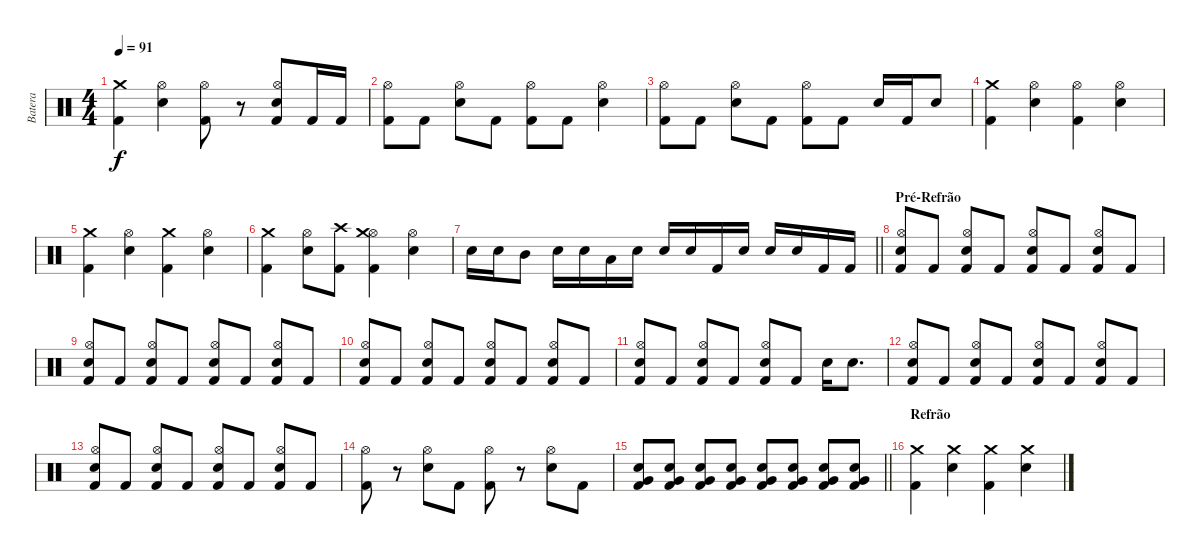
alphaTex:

\track ("Batera" "Batera") {instrument percussion}
\staff {score}
\articulation defaults
\ts (4 4)
\tempo 91
\clef neutral
\ks c
("Crash medium (hit)" "Kick (hit) 2").4{dy f} ("Hi-Hat (open)" "Electric Snare (hit)").4 ("Hi-Hat (open)" "Kick (hit) 2").8 r.8 ("Hi-Hat (open)" "Electric Snare (hit)" "Kick (hit) 2").8 "Kick (hit) 2".16 "Kick (hit) 2".16 |
("Hi-Hat (open)" "Kick (hit) 2").8 "Kick (hit) 2".8 ("Hi-Hat (open)" "Electric Snare (hit)").8 "Kick (hit) 2".8 ("Hi-Hat (open)" "Kick (hit) 2").8 "Kick (hit) 2".8 ("Hi-Hat (open)" "Electric Snare (hit)").4 |
("Hi-Hat (open)" "Kick (hit) 2").8 "Kick (hit) 2".8 ("Hi-Hat (open)" "Electric Snare (hit)").8 "Kick (hit) 2".8 ("Hi-Hat (open)" "Kick (hit) 2").8 "Kick (hit) 2".8 "Electric Snare (hit)".16 "Kick (hit) 2".16 "Electric Snare (hit)".8 |
("Crash medium (hit)" "Kick (hit) 2").4 ("Hi-Hat (open)" "Electric Snare (hit)").4 ("Hi-Hat (open)" "Kick (hit) 2").4 ("Hi-Hat (open)" "Electric Snare (hit)").4 |
("Crash medium (hit)" "Kick (hit) 2").4 ("Hi-Hat (open)" "Electric Snare (hit)").4 ("Crash medium (hit)" "Kick (hit) 2").4 ("Hi-Hat (open)" "Electric Snare (hit)").4 |
("Crash medium (hit)" "Kick (hit) 2").4 ("Hi-Hat (open)" "Electric Snare (hit)").8 ("Crash high (hit)" "Kick (hit) 2").8 ("Hi-Hat (open)" "Crash medium (hit)" "Kick (hit) 2").4 ("Hi-Hat (open)" "Electric Snare (hit)").4 |
\barLineRight lightlight "Electric Snare (hit)".16 "Electric Snare (hit)".16 "Mid Tom (hit)".8 "Electric Snare (hit)".16 "Electric Snare (hit)".16 "Low Tom (hit)".16 "Electric Snare (hit)".16 "Electric Snare (hit)".16 "Electric Snare (hit)".16 "Kick (hit) 2".16 "Electric Snare (hit)".16 "Electric Snare (hit)".16 "Electric Snare (hit)".16 "Kick (hit) 2".16 "Kick (hit) 2".16
|
\section ("" "Pré-Refrão")
("Hi-Hat (open)" "Electric Snare (hit)" "Kick (hit) 2").8 "Kick (hit) 2".8 ("Hi-Hat (open)" "Electric Snare (hit)" "Kick (hit) 2").8 "Kick (hit) 2".8 ("Hi-Hat (open)" "Electric Snare (hit)" "Kick (hit) 2").8 "Kick (hit) 2".8 ("Hi-Hat (open)" "Electric Snare (hit)" "Kick (hit) 2").8 "Kick (hit) 2".8 |
("Hi-Hat (open)" "Electric Snare (hit)" "Kick (hit) 2").8 "Kick (hit) 2".8 ("Hi-Hat (open)" "Electric Snare (hit)" "Kick (hit) 2").8 "Kick (hit) 2".8 ("Hi-Hat (open)" "Electric Snare (hit)" "Kick (hit) 2").8 "Kick (hit) 2".8 ("Hi-Hat (open)" "Electric Snare (hit)" "Kick (hit) 2").8 "Kick (hit) 2".8 |
("Hi-Hat (open)" "Electric Snare (hit)" "Kick (hit) 2").8 "Kick (hit) 2".8 ("Hi-Hat (open)" "Electric Snare (hit)" "Kick (hit) 2").8 "Kick (hit) 2".8 ("Hi-Hat (open)" "Electric Snare (hit)" "Kick (hit) 2").8 "Kick (hit) 2".8 ("Hi-Hat (open)" "Electric Snare (hit)" "Kick (hit) 2").8 "Kick (hit) 2".8 |
("Hi-Hat (open)" "Electric Snare (hit)" "Kick (hit) 2").8 "Kick (hit) 2".8 ("Hi-Hat (open)" "Electric Snare (hit)" "Kick (hit) 2").8 "Kick (hit) 2".8 ("Hi-Hat (open)" "Electric Snare (hit)" "Kick (hit) 2").8 "Kick (hit) 2".8 "Electric Snare (hit)".16 "Electric Snare (hit)".8{d} |
("Hi-Hat (open)" "Electric Snare (hit)" "Kick (hit) 2").8 "Kick (hit) 2".8 ("Hi-Hat (open)" "Electric Snare (hit)" "Kick (hit) 2").8 "Kick (hit) 2".8 ("Hi-Hat (open)" "Electric Snare (hit)" "Kick (hit) 2").8 "Kick (hit) 2".8 ("Hi-Hat (open)" "Electric Snare (hit)" "Kick (hit) 2").8 "Kick (hit) 2".8 |
("Hi-Hat (open)" "Electric Snare (hit)" "Kick (hit) 2").8 "Kick (hit) 2".8 ("Hi-Hat (open)" "Electric Snare (hit)" "Kick (hit) 2").8 "Kick (hit) 2".8 ("Hi-Hat (open)" "Electric Snare (hit)" "Kick (hit) 2").8 "Kick (hit) 2".8 ("Hi-Hat (open)" "Electric Snare (hit)" "Kick (hit) 2").8 "Kick (hit) 2".8 |
("Hi-Hat (open)" "Kick (hit) 2").8 r.8 ("Hi-Hat (open)" "Electric Snare (hit)").8 "Kick (hit) 2".8 ("Hi-Hat (open)" "Kick (hit) 2").8 r.8 ("Hi-Hat (open)" "Electric Snare (hit)").8 "Kick (hit) 2".8 |
\barLineRight lightlight
("Electric Snare (hit)" "Very Low Tom (hit)" "Kick (hit) 2").8 ("Electric Snare (hit)" "Very Low Tom (hit)" "Kick (hit) 2").8 ("Electric Snare (hit)" "Very Low Tom (hit)" "Kick (hit) 2").8 ("Electric Snare (hit)" "Very Low Tom (hit)" "Kick (hit) 2").8 ("Electric Snare (hit)" "Very Low Tom (hit)" "Kick (hit) 2").8 ("Electric Snare (hit)" "Very Low Tom (hit)" "Kick (hit) 2").8 ("Electric Snare (hit)" "Very Low Tom (hit)" "Kick (hit) 2").8 ("Electric Snare (hit)" "Very Low Tom (hit)" "Kick (hit) 2").8 |
\section ("" "Refrão")
("Crash medium (hit)" "Kick (hit) 2").4 ("Crash medium (hit)" "Electric Snare (hit)").4 ("Crash medium (hit)" "Kick (hit) 2").4 ("Crash medium (hit)" "Electric Snare (hit)").4
